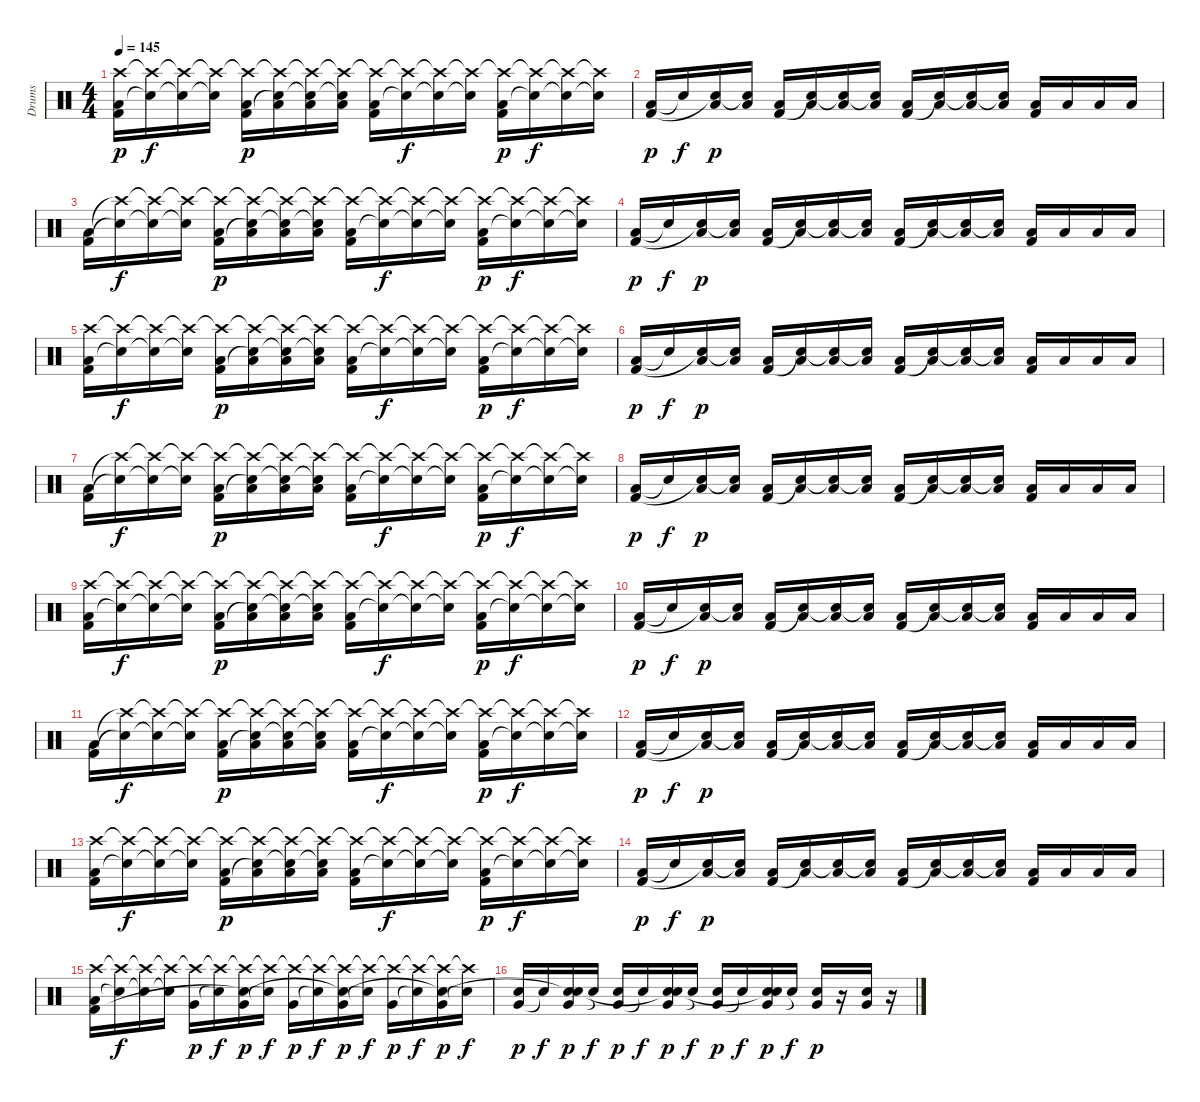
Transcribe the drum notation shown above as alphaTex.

\track ("Drums" "Drums") {instrument percussion}
\staff {score}
\articulation defaults
\ts (4 4)
\tempo 145
\clef neutral
\ks c
("Crash high (hit)" "Low Floor Tom (hit)" "Kick (hit) 2").16{dy p} ("Crash high (hit)"{t} "Snare (hit)"{t}).16{dy f} ("Crash high (hit)"{t} "Snare (hit)"{t}).16 ("Crash high (hit)"{t} "Snare (hit)"{t}).16 ("Crash high (hit)"{t} "Low Floor Tom (hit)" "Kick (hit) 2").16{dy p} ("Crash high (hit)"{t} "Low Floor Tom (hit)" "Snare (hit)"{t}).16 ("Crash high (hit)"{t} "Low Floor Tom (hit)" "Snare (hit)"{t}).16 ("Crash high (hit)"{t} "Low Floor Tom (hit)" "Snare (hit)"{t}).16 ("Crash high (hit)"{t} "Low Floor Tom (hit)" "Kick (hit) 2").16 ("Crash high (hit)"{t} "Snare (hit)"{t}).16{dy f} ("Crash high (hit)"{t} "Snare (hit)"{t}).16 ("Crash high (hit)"{t} "Snare (hit)"{t}).16 ("Crash high (hit)"{t} "Low Floor Tom (hit)" "Kick (hit) 2").16{dy p} ("Crash high (hit)"{t} "Snare (hit)"{t}).16{dy f} ("Crash high (hit)"{t} "Snare (hit)"{t}).16 ("Crash high (hit)"{t} "Snare (hit)"{t}).16 |
("Low Floor Tom (hit)" "Kick (hit) 2").16{dy p} "Snare (hit)"{t}.16{dy f} ("Low Floor Tom (hit)" "Snare (hit)"{t}).16{dy p} ("Low Floor Tom (hit)" "Snare (hit)"{t}).16 ("Low Floor Tom (hit)" "Kick (hit) 2").16 ("Low Floor Tom (hit)" "Snare (hit)"{t}).16 ("Low Floor Tom (hit)" "Snare (hit)"{t}).16 ("Low Floor Tom (hit)" "Snare (hit)"{t}).16 ("Low Floor Tom (hit)" "Kick (hit) 2").16 ("Low Floor Tom (hit)" "Snare (hit)"{t}).16 ("Low Floor Tom (hit)" "Snare (hit)"{t}).16 ("Low Floor Tom (hit)" "Snare (hit)"{t}).16 ("Low Floor Tom (hit)" "Kick (hit) 2").16 "Low Floor Tom (hit)".16 "Low Floor Tom (hit)".16 "Low Floor Tom (hit)".16 |
("Low Floor Tom (hit)" "Kick (hit) 2").16 ("Crash high (hit)"{t} "Snare (hit)"{t}).16{dy f} ("Crash high (hit)"{t} "Snare (hit)"{t}).16 ("Crash high (hit)"{t} "Snare (hit)"{t}).16 ("Crash high (hit)"{t} "Low Floor Tom (hit)" "Kick (hit) 2").16{dy p} ("Crash high (hit)"{t} "Low Floor Tom (hit)" "Snare (hit)"{t}).16 ("Crash high (hit)"{t} "Low Floor Tom (hit)" "Snare (hit)"{t}).16 ("Crash high (hit)"{t} "Low Floor Tom (hit)" "Snare (hit)"{t}).16 ("Crash high (hit)"{t} "Low Floor Tom (hit)" "Kick (hit) 2").16 ("Crash high (hit)"{t} "Snare (hit)"{t}).16{dy f} ("Crash high (hit)"{t} "Snare (hit)"{t}).16 ("Crash high (hit)"{t} "Snare (hit)"{t}).16 ("Crash high (hit)"{t} "Low Floor Tom (hit)" "Kick (hit) 2").16{dy p} ("Crash high (hit)"{t} "Snare (hit)"{t}).16{dy f} ("Crash high (hit)"{t} "Snare (hit)"{t}).16 ("Crash high (hit)"{t} "Snare (hit)"{t}).16 |
("Low Floor Tom (hit)" "Kick (hit) 2").16{dy p} "Snare (hit)"{t}.16{dy f} ("Low Floor Tom (hit)" "Snare (hit)"{t}).16{dy p} ("Low Floor Tom (hit)" "Snare (hit)"{t}).16 ("Low Floor Tom (hit)" "Kick (hit) 2").16 ("Low Floor Tom (hit)" "Snare (hit)"{t}).16 ("Low Floor Tom (hit)" "Snare (hit)"{t}).16 ("Low Floor Tom (hit)" "Snare (hit)"{t}).16 ("Low Floor Tom (hit)" "Kick (hit) 2").16 ("Low Floor Tom (hit)" "Snare (hit)"{t}).16 ("Low Floor Tom (hit)" "Snare (hit)"{t}).16 ("Low Floor Tom (hit)" "Snare (hit)"{t}).16 ("Low Floor Tom (hit)" "Kick (hit) 2").16 "Low Floor Tom (hit)".16 "Low Floor Tom (hit)".16 "Low Floor Tom (hit)".16 |
("Crash high (hit)" "Low Floor Tom (hit)" "Kick (hit) 2").16 ("Crash high (hit)"{t} "Snare (hit)"{t}).16{dy f} ("Crash high (hit)"{t} "Snare (hit)"{t}).16 ("Crash high (hit)"{t} "Snare (hit)"{t}).16 ("Crash high (hit)"{t} "Low Floor Tom (hit)" "Kick (hit) 2").16{dy p} ("Crash high (hit)"{t} "Low Floor Tom (hit)" "Snare (hit)"{t}).16 ("Crash high (hit)"{t} "Low Floor Tom (hit)" "Snare (hit)"{t}).16 ("Crash high (hit)"{t} "Low Floor Tom (hit)" "Snare (hit)"{t}).16 ("Crash high (hit)"{t} "Low Floor Tom (hit)" "Kick (hit) 2").16 ("Crash high (hit)"{t} "Snare (hit)"{t}).16{dy f} ("Crash high (hit)"{t} "Snare (hit)"{t}).16 ("Crash high (hit)"{t} "Snare (hit)"{t}).16 ("Crash high (hit)"{t} "Low Floor Tom (hit)" "Kick (hit) 2").16{dy p} ("Crash high (hit)"{t} "Snare (hit)"{t}).16{dy f} ("Crash high (hit)"{t} "Snare (hit)"{t}).16 ("Crash high (hit)"{t} "Snare (hit)"{t}).16 |
("Low Floor Tom (hit)" "Kick (hit) 2").16{dy p} "Snare (hit)"{t}.16{dy f} ("Low Floor Tom (hit)" "Snare (hit)"{t}).16{dy p} ("Low Floor Tom (hit)" "Snare (hit)"{t}).16 ("Low Floor Tom (hit)" "Kick (hit) 2").16 ("Low Floor Tom (hit)" "Snare (hit)"{t}).16 ("Low Floor Tom (hit)" "Snare (hit)"{t}).16 ("Low Floor Tom (hit)" "Snare (hit)"{t}).16 ("Low Floor Tom (hit)" "Kick (hit) 2").16 ("Low Floor Tom (hit)" "Snare (hit)"{t}).16 ("Low Floor Tom (hit)" "Snare (hit)"{t}).16 ("Low Floor Tom (hit)" "Snare (hit)"{t}).16 ("Low Floor Tom (hit)" "Kick (hit) 2").16 "Low Floor Tom (hit)".16 "Low Floor Tom (hit)".16 "Low Floor Tom (hit)".16 |
("Low Floor Tom (hit)" "Kick (hit) 2").16 ("Crash high (hit)"{t} "Snare (hit)"{t}).16{dy f} ("Crash high (hit)"{t} "Snare (hit)"{t}).16 ("Crash high (hit)"{t} "Snare (hit)"{t}).16 ("Crash high (hit)"{t} "Low Floor Tom (hit)" "Kick (hit) 2").16{dy p} ("Crash high (hit)"{t} "Low Floor Tom (hit)" "Snare (hit)"{t}).16 ("Crash high (hit)"{t} "Low Floor Tom (hit)" "Snare (hit)"{t}).16 ("Crash high (hit)"{t} "Low Floor Tom (hit)" "Snare (hit)"{t}).16 ("Crash high (hit)"{t} "Low Floor Tom (hit)" "Kick (hit) 2").16 ("Crash high (hit)"{t} "Snare (hit)"{t}).16{dy f} ("Crash high (hit)"{t} "Snare (hit)"{t}).16 ("Crash high (hit)"{t} "Snare (hit)"{t}).16 ("Crash high (hit)"{t} "Low Floor Tom (hit)" "Kick (hit) 2").16{dy p} ("Crash high (hit)"{t} "Snare (hit)"{t}).16{dy f} ("Crash high (hit)"{t} "Snare (hit)"{t}).16 ("Crash high (hit)"{t} "Snare (hit)"{t}).16 |
("Low Floor Tom (hit)" "Kick (hit) 2").16{dy p} "Snare (hit)"{t}.16{dy f} ("Low Floor Tom (hit)" "Snare (hit)"{t}).16{dy p} ("Low Floor Tom (hit)" "Snare (hit)"{t}).16 ("Low Floor Tom (hit)" "Kick (hit) 2").16 ("Low Floor Tom (hit)" "Snare (hit)"{t}).16 ("Low Floor Tom (hit)" "Snare (hit)"{t}).16 ("Low Floor Tom (hit)" "Snare (hit)"{t}).16 ("Low Floor Tom (hit)" "Kick (hit) 2").16 ("Low Floor Tom (hit)" "Snare (hit)"{t}).16 ("Low Floor Tom (hit)" "Snare (hit)"{t}).16 ("Low Floor Tom (hit)" "Snare (hit)"{t}).16 ("Low Floor Tom (hit)" "Kick (hit) 2").16 "Low Floor Tom (hit)".16 "Low Floor Tom (hit)".16 "Low Floor Tom (hit)".16 |
("Crash high (hit)" "Low Floor Tom (hit)" "Kick (hit) 2").16 ("Crash high (hit)"{t} "Snare (hit)"{t}).16{dy f} ("Crash high (hit)"{t} "Snare (hit)"{t}).16 ("Crash high (hit)"{t} "Snare (hit)"{t}).16 ("Crash high (hit)"{t} "Low Floor Tom (hit)" "Kick (hit) 2").16{dy p} ("Crash high (hit)"{t} "Low Floor Tom (hit)" "Snare (hit)"{t}).16 ("Crash high (hit)"{t} "Low Floor Tom (hit)" "Snare (hit)"{t}).16 ("Crash high (hit)"{t} "Low Floor Tom (hit)" "Snare (hit)"{t}).16 ("Crash high (hit)"{t} "Low Floor Tom (hit)" "Kick (hit) 2").16 ("Crash high (hit)"{t} "Snare (hit)"{t}).16{dy f} ("Crash high (hit)"{t} "Snare (hit)"{t}).16 ("Crash high (hit)"{t} "Snare (hit)"{t}).16 ("Crash high (hit)"{t} "Low Floor Tom (hit)" "Kick (hit) 2").16{dy p} ("Crash high (hit)"{t} "Snare (hit)"{t}).16{dy f} ("Crash high (hit)"{t} "Snare (hit)"{t}).16 ("Crash high (hit)"{t} "Snare (hit)"{t}).16 |
("Low Floor Tom (hit)" "Kick (hit) 2").16{dy p} "Snare (hit)"{t}.16{dy f} ("Low Floor Tom (hit)" "Snare (hit)"{t}).16{dy p} ("Low Floor Tom (hit)" "Snare (hit)"{t}).16 ("Low Floor Tom (hit)" "Kick (hit) 2").16 ("Low Floor Tom (hit)" "Snare (hit)"{t}).16 ("Low Floor Tom (hit)" "Snare (hit)"{t}).16 ("Low Floor Tom (hit)" "Snare (hit)"{t}).16 ("Low Floor Tom (hit)" "Kick (hit) 2").16 ("Low Floor Tom (hit)" "Snare (hit)"{t}).16 ("Low Floor Tom (hit)" "Snare (hit)"{t}).16 ("Low Floor Tom (hit)" "Snare (hit)"{t}).16 ("Low Floor Tom (hit)" "Kick (hit) 2").16 "Low Floor Tom (hit)".16 "Low Floor Tom (hit)".16 "Low Floor Tom (hit)".16 |
("Low Floor Tom (hit)" "Kick (hit) 2").16 ("Crash high (hit)"{t} "Snare (hit)"{t}).16{dy f} ("Crash high (hit)"{t} "Snare (hit)"{t}).16 ("Crash high (hit)"{t} "Snare (hit)"{t}).16 ("Crash high (hit)"{t} "Low Floor Tom (hit)" "Kick (hit) 2").16{dy p} ("Crash high (hit)"{t} "Low Floor Tom (hit)" "Snare (hit)"{t}).16 ("Crash high (hit)"{t} "Low Floor Tom (hit)" "Snare (hit)"{t}).16 ("Crash high (hit)"{t} "Low Floor Tom (hit)" "Snare (hit)"{t}).16 ("Crash high (hit)"{t} "Low Floor Tom (hit)" "Kick (hit) 2").16 ("Crash high (hit)"{t} "Snare (hit)"{t}).16{dy f} ("Crash high (hit)"{t} "Snare (hit)"{t}).16 ("Crash high (hit)"{t} "Snare (hit)"{t}).16 ("Crash high (hit)"{t} "Low Floor Tom (hit)" "Kick (hit) 2").16{dy p} ("Crash high (hit)"{t} "Snare (hit)"{t}).16{dy f} ("Crash high (hit)"{t} "Snare (hit)"{t}).16 ("Crash high (hit)"{t} "Snare (hit)"{t}).16 |
("Low Floor Tom (hit)" "Kick (hit) 2").16{dy p} "Snare (hit)"{t}.16{dy f} ("Low Floor Tom (hit)" "Snare (hit)"{t}).16{dy p} ("Low Floor Tom (hit)" "Snare (hit)"{t}).16 ("Low Floor Tom (hit)" "Kick (hit) 2").16 ("Low Floor Tom (hit)" "Snare (hit)"{t}).16 ("Low Floor Tom (hit)" "Snare (hit)"{t}).16 ("Low Floor Tom (hit)" "Snare (hit)"{t}).16 ("Low Floor Tom (hit)" "Kick (hit) 2").16 ("Low Floor Tom (hit)" "Snare (hit)"{t}).16 ("Low Floor Tom (hit)" "Snare (hit)"{t}).16 ("Low Floor Tom (hit)" "Snare (hit)"{t}).16 ("Low Floor Tom (hit)" "Kick (hit) 2").16 "Low Floor Tom (hit)".16 "Low Floor Tom (hit)".16 "Low Floor Tom (hit)".16 |
("Crash high (hit)" "Low Floor Tom (hit)" "Kick (hit) 2").16 ("Crash high (hit)"{t} "Snare (hit)"{t}).16{dy f} ("Crash high (hit)"{t} "Snare (hit)"{t}).16 ("Crash high (hit)"{t} "Snare (hit)"{t}).16 ("Crash high (hit)"{t} "Low Floor Tom (hit)" "Kick (hit) 2").16{dy p} ("Crash high (hit)"{t} "Low Floor Tom (hit)" "Snare (hit)"{t}).16 ("Crash high (hit)"{t} "Low Floor Tom (hit)" "Snare (hit)"{t}).16 ("Crash high (hit)"{t} "Low Floor Tom (hit)" "Snare (hit)"{t}).16 ("Crash high (hit)"{t} "Low Floor Tom (hit)" "Kick (hit) 2").16 ("Crash high (hit)"{t} "Snare (hit)"{t}).16{dy f} ("Crash high (hit)"{t} "Snare (hit)"{t}).16 ("Crash high (hit)"{t} "Snare (hit)"{t}).16 ("Crash high (hit)"{t} "Low Floor Tom (hit)" "Kick (hit) 2").16{dy p} ("Crash high (hit)"{t} "Snare (hit)"{t}).16{dy f} ("Crash high (hit)"{t} "Snare (hit)"{t}).16 ("Crash high (hit)"{t} "Snare (hit)"{t}).16 |
("Low Floor Tom (hit)" "Kick (hit) 2").16{dy p} "Snare (hit)"{t}.16{dy f} ("Low Floor Tom (hit)" "Snare (hit)"{t}).16{dy p} ("Low Floor Tom (hit)" "Snare (hit)"{t}).16 ("Low Floor Tom (hit)" "Kick (hit) 2").16 ("Low Floor Tom (hit)" "Snare (hit)"{t}).16 ("Low Floor Tom (hit)" "Snare (hit)"{t}).16 ("Low Floor Tom (hit)" "Snare (hit)"{t}).16 ("Low Floor Tom (hit)" "Kick (hit) 2").16 ("Low Floor Tom (hit)" "Snare (hit)"{t}).16 ("Low Floor Tom (hit)" "Snare (hit)"{t}).16 ("Low Floor Tom (hit)" "Snare (hit)"{t}).16 ("Low Floor Tom (hit)" "Kick (hit) 2").16 "Low Floor Tom (hit)".16 "Low Floor Tom (hit)".16 "Low Floor Tom (hit)".16 |
("Crash high (hit)" "Low Floor Tom (hit)" "Kick (hit) 2").16 ("Crash high (hit)"{t} "Snare (hit)"{t}).16{dy f} ("Crash high (hit)"{t} "Snare (hit)"{t}).16 ("Crash high (hit)"{t} "Snare (hit)"{t}).16 ("Crash high (hit)"{t} "Very Low Tom (hit)").16{dy p} ("Crash high (hit)"{t} "Snare (hit)"{t}).16{dy f} ("Crash high (hit)"{t} "Very Low Tom (hit)" "Snare (hit)"{t}).16{dy p} ("Crash high (hit)"{t} "Snare (hit)"{t}).16{dy f} ("Crash high (hit)"{t} "Very Low Tom (hit)").16{dy p} ("Crash high (hit)"{t} "Snare (hit)"{t}).16{dy f} ("Crash high (hit)"{t} "Very Low Tom (hit)" "Snare (hit)"{t}).16{dy p} ("Crash high (hit)"{t} "Snare (hit)"{t}).16{dy f} ("Crash high (hit)"{t} "Very Low Tom (hit)").16{dy p} ("Crash high (hit)"{t} "Snare (hit)"{t}).16{dy f} ("Crash high (hit)"{t} "Very Low Tom (hit)" "Snare (hit)"{t}).16{dy p} ("Crash high (hit)"{t} "Snare (hit)"{t}).16{dy f} |
("Very Low Tom (hit)" "Snare (hit) 2").16{dy p} "Snare (hit)"{t}.16{dy f} ("Very Low Tom (hit)" "Snare (hit) 2" "Snare (hit)"{t}).16{dy p} "Snare (hit)"{t}.16{dy f} ("Very Low Tom (hit)" "Snare (hit) 2").16{dy p} "Snare (hit)"{t}.16{dy f} ("Very Low Tom (hit)" "Snare (hit) 2" "Snare (hit)"{t}).16{dy p} "Snare (hit)"{t}.16{dy f} ("Very Low Tom (hit)" "Snare (hit) 2").16{dy p} "Snare (hit)"{t}.16{dy f} ("Very Low Tom (hit)" "Snare (hit) 2" "Snare (hit)"{t}).16{dy p} "Snare (hit)"{t}.16{dy f} ("Very Low Tom (hit)" "Snare (hit) 2").16{dy p} r.16 ("Very Low Tom (hit)" "Snare (hit) 2").16 r.16
